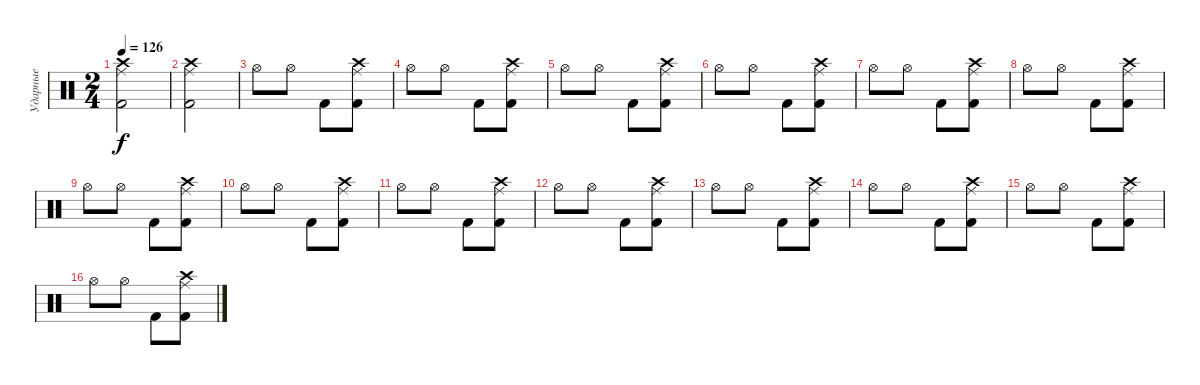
\track ("Ударные" "Ударные") {instrument percussion}
\staff {score}
\articulation defaults
\ts (2 4)
\tempo 126
\clef neutral
\ks c
("Crash high (hit)" "Kick (hit) 2" "Ride (middle)").2{dy f} |
("Crash high (hit)" "Kick (hit) 2" "Ride (middle)").2 |
"Hi-Hat (open)".8 "Hi-Hat (open)".8 "Kick (hit) 2".8 ("Crash high (hit)" "Kick (hit) 2" "Ride (middle)").8 |
"Hi-Hat (open)".8 "Hi-Hat (open)".8 "Kick (hit) 2".8 ("Crash high (hit)" "Kick (hit) 2" "Ride (middle)").8 |
"Hi-Hat (open)".8 "Hi-Hat (open)".8 "Kick (hit) 2".8 ("Crash high (hit)" "Kick (hit) 2" "Ride (middle)").8 |
"Hi-Hat (open)".8 "Hi-Hat (open)".8 "Kick (hit) 2".8 ("Crash high (hit)" "Kick (hit) 2" "Ride (middle)").8 |
"Hi-Hat (open)".8 "Hi-Hat (open)".8 "Kick (hit) 2".8 ("Crash high (hit)" "Kick (hit) 2" "Ride (middle)").8 |
"Hi-Hat (open)".8 "Hi-Hat (open)".8 "Kick (hit) 2".8 ("Crash high (hit)" "Kick (hit) 2" "Ride (middle)").8 |
"Hi-Hat (open)".8 "Hi-Hat (open)".8 "Kick (hit) 2".8 ("Crash high (hit)" "Kick (hit) 2" "Ride (middle)").8 |
"Hi-Hat (open)".8 "Hi-Hat (open)".8 "Kick (hit) 2".8 ("Crash high (hit)" "Kick (hit) 2" "Ride (middle)").8 |
"Hi-Hat (open)".8 "Hi-Hat (open)".8 "Kick (hit) 2".8 ("Crash high (hit)" "Kick (hit) 2" "Ride (middle)").8 |
"Hi-Hat (open)".8 "Hi-Hat (open)".8 "Kick (hit) 2".8 ("Crash high (hit)" "Kick (hit) 2" "Ride (middle)").8 |
"Hi-Hat (open)".8 "Hi-Hat (open)".8 "Kick (hit) 2".8 ("Crash high (hit)" "Kick (hit) 2" "Ride (middle)").8 |
"Hi-Hat (open)".8 "Hi-Hat (open)".8 "Kick (hit) 2".8 ("Crash high (hit)" "Kick (hit) 2" "Ride (middle)").8 |
"Hi-Hat (open)".8 "Hi-Hat (open)".8 "Kick (hit) 2".8 ("Crash high (hit)" "Kick (hit) 2" "Ride (middle)").8 |
"Hi-Hat (open)".8 "Hi-Hat (open)".8 "Kick (hit) 2".8 ("Crash high (hit)" "Kick (hit) 2" "Ride (middle)").8
